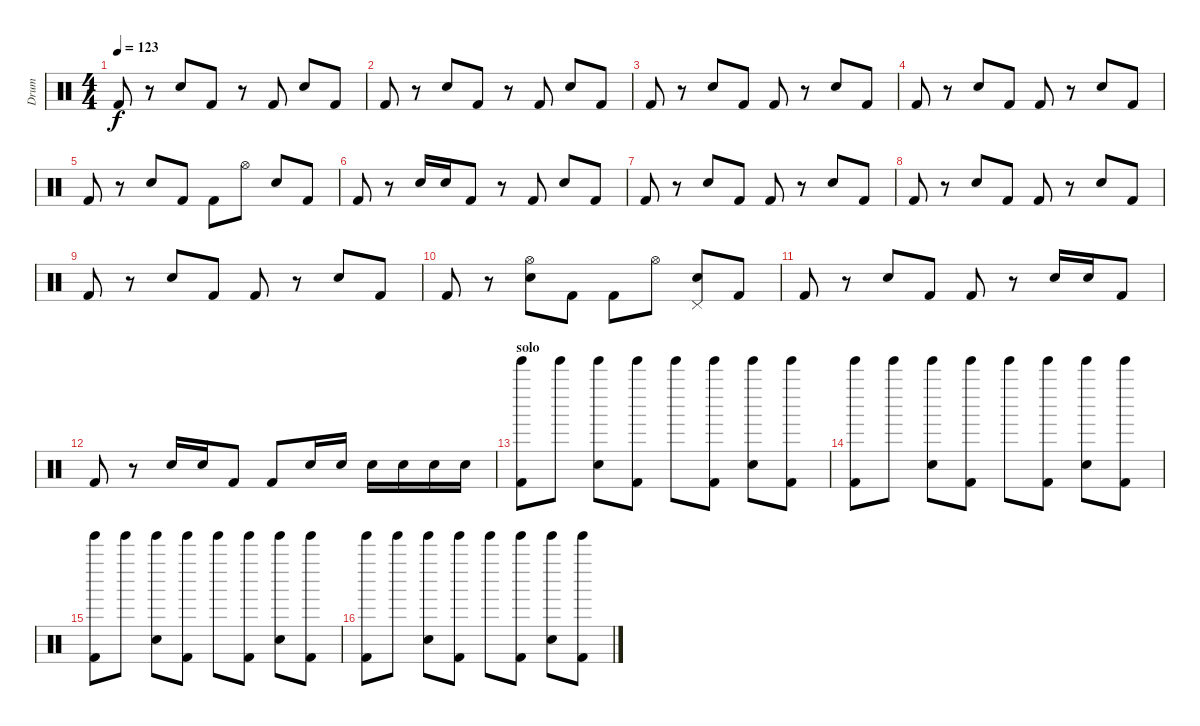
\track ("Drum" "Drum") {instrument percussion}
\staff {score}
\articulation defaults
\ts (4 4)
\tempo 123
\clef neutral
\ks c "Kick (hit) 2".8{dy f}
r.8 "Electric Snare (hit)".8 "Kick (hit) 2".8 r.8 "Kick (hit) 2".8 "Electric Snare (hit)".8 "Kick (hit) 2".8 |
"Kick (hit) 2".8 r.8 "Electric Snare (hit)".8 "Kick (hit) 2".8 r.8 "Kick (hit) 2".8 "Electric Snare (hit)".8 "Kick (hit) 2".8 |
"Kick (hit) 2".8 r.8 "Electric Snare (hit)".8 "Kick (hit) 2".8 "Kick (hit) 2".8 r.8 "Electric Snare (hit)".8 "Kick (hit) 2".8 |
"Kick (hit) 2".8 r.8 "Electric Snare (hit)".8 "Kick (hit) 2".8 "Kick (hit) 2".8 r.8 "Electric Snare (hit)".8 "Kick (hit) 2".8 |
"Kick (hit) 2".8 r.8 "Electric Snare (hit)".8 "Kick (hit) 2".8 "Kick (hit) 2".8 "Hi-Hat (open)".8 "Electric Snare (hit)".8 "Kick (hit) 2".8 |
"Kick (hit) 2".8 r.8 "Electric Snare (hit)".16 "Electric Snare (hit)".16 "Kick (hit) 2".8 r.8 "Kick (hit) 2".8 "Electric Snare (hit)".8 "Kick (hit) 2".8 |
"Kick (hit) 2".8 r.8 "Electric Snare (hit)".8 "Kick (hit) 2".8 "Kick (hit) 2".8 r.8 "Electric Snare (hit)".8 "Kick (hit) 2".8 |
"Kick (hit) 2".8 r.8 "Electric Snare (hit)".8 "Kick (hit) 2".8 "Kick (hit) 2".8 r.8 "Electric Snare (hit)".8 "Kick (hit) 2".8 |
"Kick (hit) 2".8 r.8 "Electric Snare (hit)".8 "Kick (hit) 2".8 "Kick (hit) 2".8 r.8 "Electric Snare (hit)".8 "Kick (hit) 2".8 |
"Kick (hit) 2".8 r.8 ("Hi-Hat (open)" "Electric Snare (hit)").8 "Kick (hit) 2".8 "Kick (hit) 2".8 "Hi-Hat (open)".8 ("Pedal Hi-Hat (hit)" "Electric Snare (hit)").8 "Kick (hit) 2".8 |
"Kick (hit) 2".8 r.8 "Electric Snare (hit)".8 "Kick (hit) 2".8 "Kick (hit) 2".8 r.8 "Electric Snare (hit)".16 "Electric Snare (hit)".16 "Kick (hit) 2".8 |
"Kick (hit) 2".8 r.8 "Electric Snare (hit)".16 "Electric Snare (hit)".16 "Kick (hit) 2".8 "Kick (hit) 2".8 "Electric Snare (hit)".16 "Electric Snare (hit)".16 "Electric Snare (hit)".16 "Electric Snare (hit)".16 "Electric Snare (hit)".16 "Electric Snare (hit)".16 |
\section ("" "solo")
("Tinkle Bell (hit)" "Kick (hit) 2").8 "Tinkle Bell (hit)".8 ("Tinkle Bell (hit)" "Electric Snare (hit)").8 ("Tinkle Bell (hit)" "Kick (hit) 2").8 "Tinkle Bell (hit)".8 ("Tinkle Bell (hit)" "Kick (hit) 2").8 ("Tinkle Bell (hit)" "Electric Snare (hit)").8 ("Tinkle Bell (hit)" "Kick (hit) 2").8 |
("Tinkle Bell (hit)" "Kick (hit) 2").8 "Tinkle Bell (hit)".8 ("Tinkle Bell (hit)" "Electric Snare (hit)").8 ("Tinkle Bell (hit)" "Kick (hit) 2").8 "Tinkle Bell (hit)".8 ("Tinkle Bell (hit)" "Kick (hit) 2").8 ("Tinkle Bell (hit)" "Electric Snare (hit)").8 ("Tinkle Bell (hit)" "Kick (hit) 2").8 |
("Tinkle Bell (hit)" "Kick (hit) 2").8 "Tinkle Bell (hit)".8 ("Tinkle Bell (hit)" "Electric Snare (hit)").8 ("Tinkle Bell (hit)" "Kick (hit) 2").8 "Tinkle Bell (hit)".8 ("Tinkle Bell (hit)" "Kick (hit) 2").8 ("Tinkle Bell (hit)" "Electric Snare (hit)").8 ("Tinkle Bell (hit)" "Kick (hit) 2").8 |
("Tinkle Bell (hit)" "Kick (hit) 2").8 "Tinkle Bell (hit)".8 ("Tinkle Bell (hit)" "Electric Snare (hit)").8 ("Tinkle Bell (hit)" "Kick (hit) 2").8 "Tinkle Bell (hit)".8 ("Tinkle Bell (hit)" "Kick (hit) 2").8 ("Tinkle Bell (hit)" "Electric Snare (hit)").8 ("Tinkle Bell (hit)" "Kick (hit) 2").8
